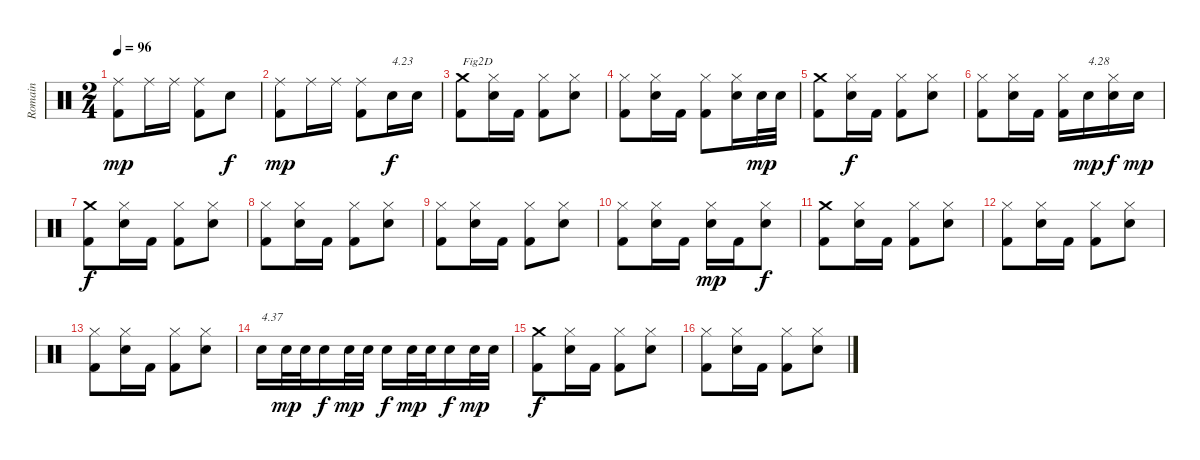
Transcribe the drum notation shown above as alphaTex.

\track ("Romain" "Romain") {instrument percussion}
\staff {score}
\articulation defaults
\ts (2 4)
\tempo 96
\clef neutral
\ks c
("Kick (hit) 2" "Ride (middle)").8{dy mp} "Ride (middle)".16 "Ride (middle)".16 ("Kick (hit) 2" "Ride (middle)").8 "Electric Snare (hit)".8{dy f} |
("Kick (hit) 2" "Ride (middle)").8{dy mp} "Ride (middle)".16 "Ride (middle)".16 ("Kick (hit) 2" "Ride (middle)").8 "Electric Snare (hit)".16{txt "4.23" dy f} "Electric Snare (hit)".16 |
("Kick (hit) 2" "Crash medium (hit)").8{txt "Fig2D"} ("Electric Snare (hit)" "Hi-Hat (closed)").16 "Kick (hit) 2".16 ("Kick (hit) 2" "Hi-Hat (closed)").8 ("Electric Snare (hit)" "Hi-Hat (closed)").8 |
("Kick (hit) 2" "Hi-Hat (closed)").8 ("Electric Snare (hit)" "Hi-Hat (closed)").16 "Kick (hit) 2".16 ("Kick (hit) 2" "Hi-Hat (closed)").8 ("Electric Snare (hit)" "Hi-Hat (closed)").16 "Electric Snare (hit)".32{dy mp} "Electric Snare (hit)".32 |
("Kick (hit) 2" "Crash medium (hit)").8 ("Electric Snare (hit)" "Hi-Hat (closed)").16{dy f} "Kick (hit) 2".16 ("Kick (hit) 2" "Hi-Hat (closed)").8 ("Electric Snare (hit)" "Hi-Hat (closed)").8 |
("Kick (hit) 2" "Hi-Hat (closed)").8 ("Electric Snare (hit)" "Hi-Hat (closed)").16 "Kick (hit) 2".16 ("Kick (hit) 2" "Hi-Hat (closed)").16 "Electric Snare (hit)".16{txt "4.28" dy mp} ("Electric Snare (hit)" "Hi-Hat (closed)").16{dy f} "Electric Snare (hit)".16{dy mp} |
("Kick (hit) 2" "Crash medium (hit)").8{dy f} ("Electric Snare (hit)" "Hi-Hat (closed)").16 "Kick (hit) 2".16 ("Kick (hit) 2" "Hi-Hat (closed)").8 ("Electric Snare (hit)" "Hi-Hat (closed)").8 |
("Kick (hit) 2" "Hi-Hat (closed)").8 ("Electric Snare (hit)" "Hi-Hat (closed)").16 "Kick (hit) 2".16 ("Kick (hit) 2" "Hi-Hat (closed)").8 ("Electric Snare (hit)" "Hi-Hat (closed)").8 |
("Kick (hit) 2" "Hi-Hat (closed)").8 ("Electric Snare (hit)" "Hi-Hat (closed)").16 "Kick (hit) 2".16 ("Kick (hit) 2" "Hi-Hat (closed)").8 ("Electric Snare (hit)" "Hi-Hat (closed)").8 |
("Kick (hit) 2" "Hi-Hat (closed)").8 ("Electric Snare (hit)" "Hi-Hat (closed)").16 "Kick (hit) 2".16 ("Electric Snare (hit)" "Hi-Hat (closed)").16{dy mp} "Kick (hit) 2".16 ("Electric Snare (hit)" "Hi-Hat (closed)").8{dy f} |
("Kick (hit) 2" "Crash medium (hit)").8 ("Electric Snare (hit)" "Hi-Hat (closed)").16 "Kick (hit) 2".16 ("Kick (hit) 2" "Hi-Hat (closed)").8 ("Electric Snare (hit)" "Hi-Hat (closed)").8 |
("Kick (hit) 2" "Hi-Hat (closed)").8 ("Electric Snare (hit)" "Hi-Hat (closed)").16 "Kick (hit) 2".16 ("Kick (hit) 2" "Hi-Hat (closed)").8 ("Electric Snare (hit)" "Hi-Hat (closed)").8 |
("Kick (hit) 2" "Hi-Hat (closed)").8 ("Electric Snare (hit)" "Hi-Hat (closed)").16 "Kick (hit) 2".16 ("Kick (hit) 2" "Hi-Hat (closed)").8 ("Electric Snare (hit)" "Hi-Hat (closed)").8 |
"Electric Snare (hit)".16{txt "4.37"} "Electric Snare (hit)".32{dy mp} "Electric Snare (hit)".32 "Electric Snare (hit)".16{dy f} "Electric Snare (hit)".32{dy mp} "Electric Snare (hit)".32 "Electric Snare (hit)".16{dy f} "Electric Snare (hit)".32{dy mp} "Electric Snare (hit)".32 "Electric Snare (hit)".16{dy f} "Electric Snare (hit)".32{dy mp} "Electric Snare (hit)".32 |
("Kick (hit) 2" "Crash medium (hit)").8{dy f} ("Electric Snare (hit)" "Hi-Hat (closed)").16 "Kick (hit) 2".16 ("Kick (hit) 2" "Hi-Hat (closed)").8 ("Electric Snare (hit)" "Hi-Hat (closed)").8 |
("Kick (hit) 2" "Hi-Hat (closed)").8 ("Electric Snare (hit)" "Hi-Hat (closed)").16 "Kick (hit) 2".16 ("Kick (hit) 2" "Hi-Hat (closed)").8 ("Electric Snare (hit)" "Hi-Hat (closed)").8
